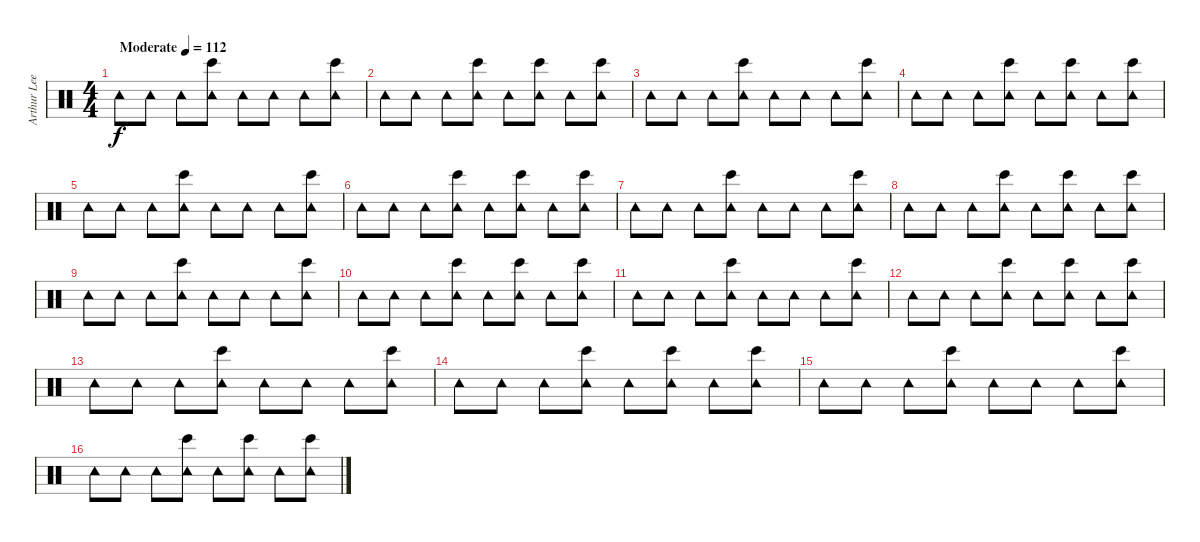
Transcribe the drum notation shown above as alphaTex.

\track ("Arthur Lee (percussion)" "Arthur Lee") {instrument percussion}
\staff {score}
\articulation defaults
\ts (4 4)
\tempo (112 "Moderate")
\clef neutral
\ks c "Tambourine (hit)".8{dy f} "Tambourine (hit)".8 "Tambourine (hit)".8
("Tambourine (hit)" "Bongo High (hit)").8 "Tambourine (hit)".8 "Tambourine (hit)".8 "Tambourine (hit)".8 ("Tambourine (hit)" "Bongo High (hit)").8 |
"Tambourine (hit)".8 "Tambourine (hit)".8 "Tambourine (hit)".8 ("Tambourine (hit)" "Bongo High (hit)").8 "Tambourine (hit)".8 ("Tambourine (hit)" "Bongo High (hit)").8 "Tambourine (hit)".8 ("Tambourine (hit)" "Bongo High (hit)").8 |
"Tambourine (hit)".8 "Tambourine (hit)".8 "Tambourine (hit)".8 ("Tambourine (hit)" "Bongo High (hit)").8 "Tambourine (hit)".8 "Tambourine (hit)".8 "Tambourine (hit)".8 ("Tambourine (hit)" "Bongo High (hit)").8 |
"Tambourine (hit)".8 "Tambourine (hit)".8 "Tambourine (hit)".8 ("Tambourine (hit)" "Bongo High (hit)").8 "Tambourine (hit)".8 ("Tambourine (hit)" "Bongo High (hit)").8 "Tambourine (hit)".8 ("Tambourine (hit)" "Bongo High (hit)").8 |
"Tambourine (hit)".8 "Tambourine (hit)".8 "Tambourine (hit)".8 ("Tambourine (hit)" "Bongo High (hit)").8 "Tambourine (hit)".8 "Tambourine (hit)".8 "Tambourine (hit)".8 ("Tambourine (hit)" "Bongo High (hit)").8 |
"Tambourine (hit)".8 "Tambourine (hit)".8 "Tambourine (hit)".8 ("Tambourine (hit)" "Bongo High (hit)").8 "Tambourine (hit)".8 ("Tambourine (hit)" "Bongo High (hit)").8 "Tambourine (hit)".8 ("Tambourine (hit)" "Bongo High (hit)").8 |
"Tambourine (hit)".8 "Tambourine (hit)".8 "Tambourine (hit)".8 ("Tambourine (hit)" "Bongo High (hit)").8 "Tambourine (hit)".8 "Tambourine (hit)".8 "Tambourine (hit)".8 ("Tambourine (hit)" "Bongo High (hit)").8 |
"Tambourine (hit)".8 "Tambourine (hit)".8 "Tambourine (hit)".8 ("Tambourine (hit)" "Bongo High (hit)").8 "Tambourine (hit)".8 ("Tambourine (hit)" "Bongo High (hit)").8 "Tambourine (hit)".8 ("Tambourine (hit)" "Bongo High (hit)").8 |
"Tambourine (hit)".8 "Tambourine (hit)".8 "Tambourine (hit)".8 ("Tambourine (hit)" "Bongo High (hit)").8 "Tambourine (hit)".8 "Tambourine (hit)".8 "Tambourine (hit)".8 ("Tambourine (hit)" "Bongo High (hit)").8 |
"Tambourine (hit)".8 "Tambourine (hit)".8 "Tambourine (hit)".8 ("Tambourine (hit)" "Bongo High (hit)").8 "Tambourine (hit)".8 ("Tambourine (hit)" "Bongo High (hit)").8 "Tambourine (hit)".8 ("Tambourine (hit)" "Bongo High (hit)").8 |
"Tambourine (hit)".8 "Tambourine (hit)".8 "Tambourine (hit)".8 ("Tambourine (hit)" "Bongo High (hit)").8 "Tambourine (hit)".8 "Tambourine (hit)".8 "Tambourine (hit)".8 ("Tambourine (hit)" "Bongo High (hit)").8 |
"Tambourine (hit)".8 "Tambourine (hit)".8 "Tambourine (hit)".8 ("Tambourine (hit)" "Bongo High (hit)").8 "Tambourine (hit)".8 ("Tambourine (hit)" "Bongo High (hit)").8 "Tambourine (hit)".8 ("Tambourine (hit)" "Bongo High (hit)").8 |
"Tambourine (hit)".8 "Tambourine (hit)".8 "Tambourine (hit)".8 ("Tambourine (hit)" "Bongo High (hit)").8 "Tambourine (hit)".8 "Tambourine (hit)".8 "Tambourine (hit)".8 ("Tambourine (hit)" "Bongo High (hit)").8 |
"Tambourine (hit)".8 "Tambourine (hit)".8 "Tambourine (hit)".8 ("Tambourine (hit)" "Bongo High (hit)").8 "Tambourine (hit)".8 ("Tambourine (hit)" "Bongo High (hit)").8 "Tambourine (hit)".8 ("Tambourine (hit)" "Bongo High (hit)").8 |
"Tambourine (hit)".8 "Tambourine (hit)".8 "Tambourine (hit)".8 ("Tambourine (hit)" "Bongo High (hit)").8 "Tambourine (hit)".8 "Tambourine (hit)".8 "Tambourine (hit)".8 ("Tambourine (hit)" "Bongo High (hit)").8 |
"Tambourine (hit)".8 "Tambourine (hit)".8 "Tambourine (hit)".8 ("Tambourine (hit)" "Bongo High (hit)").8 "Tambourine (hit)".8 ("Tambourine (hit)" "Bongo High (hit)").8 "Tambourine (hit)".8 ("Tambourine (hit)" "Bongo High (hit)").8
